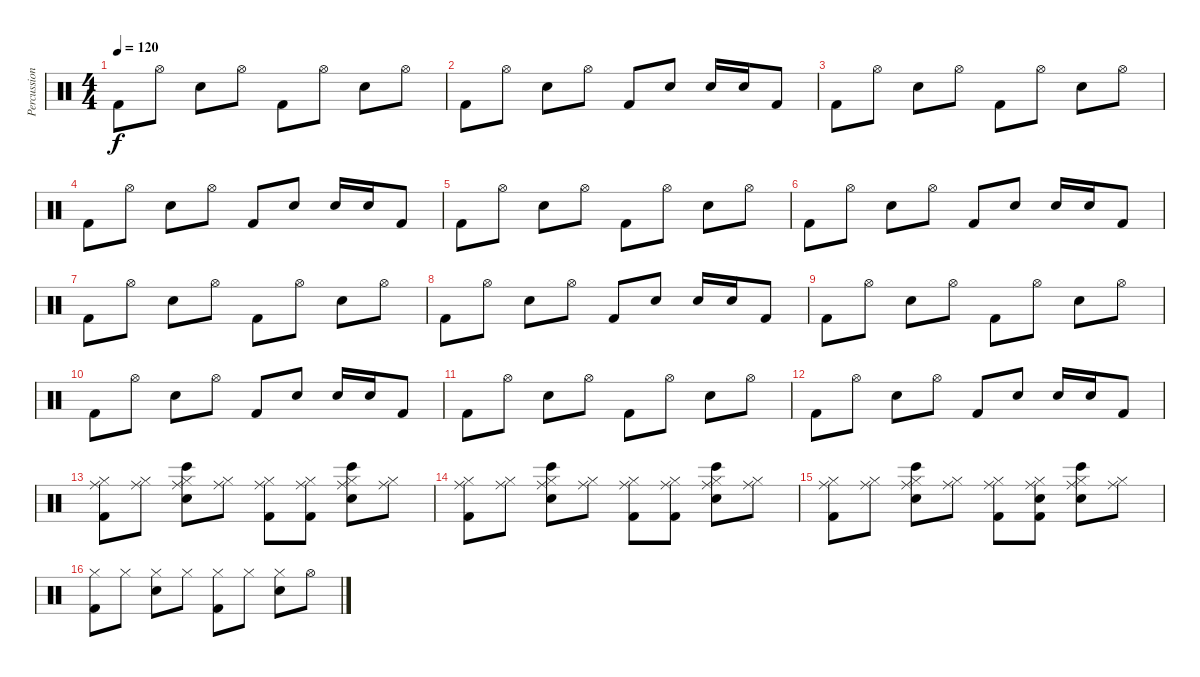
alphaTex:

\track ("Percussion" "Percussion") {instrument percussion}
\staff {score}
\articulation defaults
\ts (4 4)
\tempo 120
\clef neutral
\ks c "Kick (hit) 2".8{dy f} "Hi-Hat (open)".8 "Snare (hit) 2".8 "Hi-Hat (open)".8 "Kick (hit) 2".8 "Hi-Hat (open)".8 "Snare (hit) 2".8 "Hi-Hat (open)".8
|
"Kick (hit) 2".8 "Hi-Hat (open)".8 "Snare (hit) 2".8 "Hi-Hat (open)".8 "Kick (hit) 2".8 "Snare (hit) 2".8 "Snare (hit) 2".16 "Snare (hit) 2".16 "Kick (hit) 2".8 |
"Kick (hit) 2".8 "Hi-Hat (open)".8 "Snare (hit) 2".8 "Hi-Hat (open)".8 "Kick (hit) 2".8 "Hi-Hat (open)".8 "Snare (hit) 2".8 "Hi-Hat (open)".8 |
"Kick (hit) 2".8 "Hi-Hat (open)".8 "Snare (hit) 2".8 "Hi-Hat (open)".8 "Kick (hit) 2".8 "Snare (hit) 2".8 "Snare (hit) 2".16 "Snare (hit) 2".16 "Kick (hit) 2".8 |
"Kick (hit) 2".8 "Hi-Hat (open)".8 "Snare (hit) 2".8 "Hi-Hat (open)".8 "Kick (hit) 2".8 "Hi-Hat (open)".8 "Snare (hit) 2".8 "Hi-Hat (open)".8 |
"Kick (hit) 2".8 "Hi-Hat (open)".8 "Snare (hit) 2".8 "Hi-Hat (open)".8 "Kick (hit) 2".8 "Snare (hit) 2".8 "Snare (hit) 2".16 "Snare (hit) 2".16 "Kick (hit) 2".8 |
"Kick (hit) 2".8 "Hi-Hat (open)".8 "Snare (hit) 2".8 "Hi-Hat (open)".8 "Kick (hit) 2".8 "Hi-Hat (open)".8 "Snare (hit) 2".8 "Hi-Hat (open)".8 |
"Kick (hit) 2".8 "Hi-Hat (open)".8 "Snare (hit) 2".8 "Hi-Hat (open)".8 "Kick (hit) 2".8 "Snare (hit) 2".8 "Snare (hit) 2".16 "Snare (hit) 2".16 "Kick (hit) 2".8 |
"Kick (hit) 2".8 "Hi-Hat (open)".8 "Snare (hit) 2".8 "Hi-Hat (open)".8 "Kick (hit) 2".8 "Hi-Hat (open)".8 "Snare (hit) 2".8 "Hi-Hat (open)".8 |
"Kick (hit) 2".8 "Hi-Hat (open)".8 "Snare (hit) 2".8 "Hi-Hat (open)".8 "Kick (hit) 2".8 "Snare (hit) 2".8 "Snare (hit) 2".16 "Snare (hit) 2".16 "Kick (hit) 2".8 |
"Kick (hit) 2".8 "Hi-Hat (open)".8 "Snare (hit) 2".8 "Hi-Hat (open)".8 "Kick (hit) 2".8 "Hi-Hat (open)".8 "Snare (hit) 2".8 "Hi-Hat (open)".8 |
"Kick (hit) 2".8 "Hi-Hat (open)".8 "Snare (hit) 2".8 "Hi-Hat (open)".8 "Kick (hit) 2".8 "Snare (hit) 2".8 "Snare (hit) 2".16 "Snare (hit) 2".16 "Kick (hit) 2".8 |
("Hi-Hat (closed)" "Kick (hit) 2" "Ride (middle)").8 ("Hi-Hat (closed)" "Ride (middle)").8 ("Hi-Hat (closed)" "Snare (hit) 2" "Bongo High (hit)" "Ride (middle)").8 ("Hi-Hat (closed)" "Ride (middle)").8 ("Hi-Hat (closed)" "Kick (hit) 2" "Ride (middle)").8 ("Hi-Hat (closed)" "Kick (hit) 2" "Ride (middle)").8 ("Hi-Hat (closed)" "Snare (hit) 2" "Bongo High (hit)" "Ride (middle)").8 ("Hi-Hat (closed)" "Ride (middle)").8 |
("Hi-Hat (closed)" "Kick (hit) 2" "Ride (middle)").8 ("Hi-Hat (closed)" "Ride (middle)").8 ("Hi-Hat (closed)" "Snare (hit) 2" "Bongo High (hit)" "Ride (middle)").8 ("Hi-Hat (closed)" "Ride (middle)").8 ("Hi-Hat (closed)" "Kick (hit) 2" "Ride (middle)").8 ("Hi-Hat (closed)" "Kick (hit) 2" "Ride (middle)").8 ("Hi-Hat (closed)" "Snare (hit) 2" "Bongo High (hit)" "Ride (middle)").8 ("Hi-Hat (closed)" "Ride (middle)").8 |
("Hi-Hat (closed)" "Kick (hit) 2" "Ride (middle)").8 ("Hi-Hat (closed)" "Ride (middle)").8 ("Hi-Hat (closed)" "Snare (hit) 2" "Bongo High (hit)" "Ride (middle)").8 ("Hi-Hat (closed)" "Ride (middle)").8 ("Hi-Hat (closed)" "Kick (hit) 2" "Ride (middle)").8 ("Hi-Hat (closed)" "Kick (hit) 2" "Snare (hit) 2" "Ride (middle)").8 ("Hi-Hat (closed)" "Snare (hit) 2" "Bongo High (hit)" "Ride (middle)").8 ("Hi-Hat (closed)" "Ride (middle)").8 |
("Hi-Hat (closed)" "Kick (hit) 2").8 "Hi-Hat (closed)".8 ("Hi-Hat (closed)" "Snare (hit) 2").8 "Hi-Hat (closed)".8 ("Hi-Hat (closed)" "Kick (hit) 2").8 "Hi-Hat (closed)".8 ("Hi-Hat (closed)" "Snare (hit) 2").8 "Hi-Hat (open)".8
